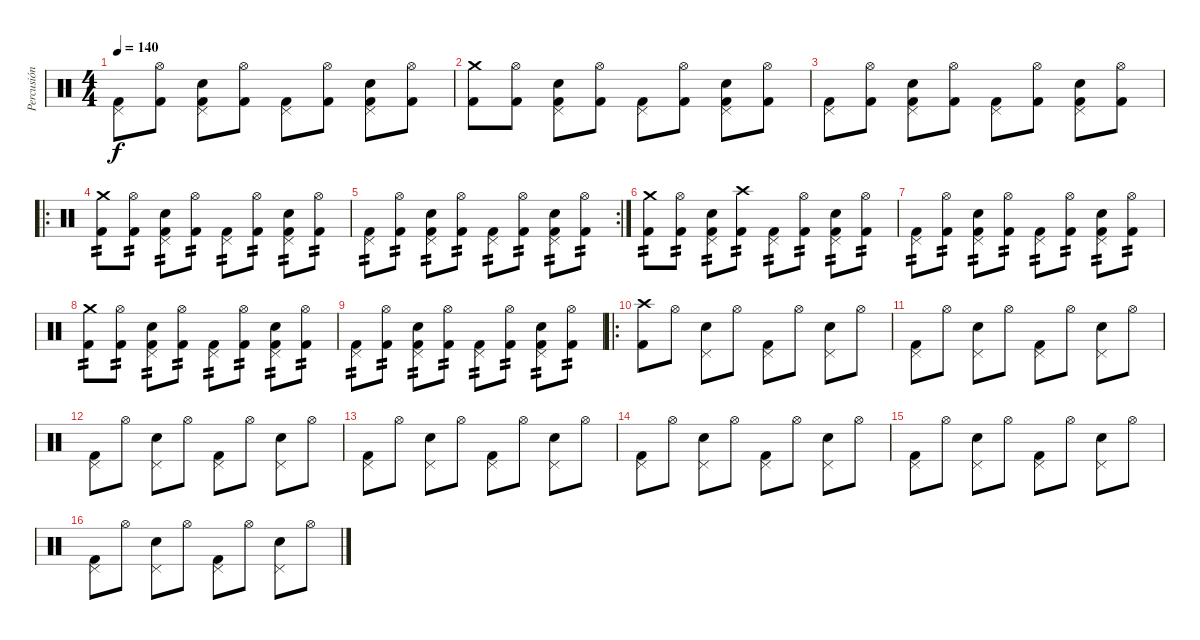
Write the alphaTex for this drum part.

\track ("Percusión" "Percusión") {instrument percussion}
\staff {score}
\articulation defaults
\ts (4 4)
\tempo 140
\clef neutral
\ks c
("Pedal Hi-Hat (hit)" "Kick (hit) 2").8{dy f} ("Hi-Hat (open)" "Kick (hit) 2").8 ("Pedal Hi-Hat (hit)" "Electric Snare (hit)" "Kick (hit) 2").8 ("Hi-Hat (open)" "Kick (hit) 2").8 ("Pedal Hi-Hat (hit)" "Kick (hit) 2").8 ("Hi-Hat (open)" "Kick (hit) 2").8 ("Pedal Hi-Hat (hit)" "Electric Snare (hit)" "Kick (hit) 2").8 ("Hi-Hat (open)" "Kick (hit) 2").8 |
("Crash medium (hit)" "Kick (hit) 2").8 ("Hi-Hat (open)" "Kick (hit) 2").8 ("Pedal Hi-Hat (hit)" "Electric Snare (hit)" "Kick (hit) 2").8 ("Hi-Hat (open)" "Kick (hit) 2").8 ("Pedal Hi-Hat (hit)" "Kick (hit) 2").8 ("Hi-Hat (open)" "Kick (hit) 2").8 ("Pedal Hi-Hat (hit)" "Electric Snare (hit)" "Kick (hit) 2").8 ("Hi-Hat (open)" "Kick (hit) 2").8 |
("Pedal Hi-Hat (hit)" "Kick (hit) 2").8 ("Hi-Hat (open)" "Kick (hit) 2").8 ("Pedal Hi-Hat (hit)" "Electric Snare (hit)" "Kick (hit) 2").8 ("Hi-Hat (open)" "Kick (hit) 2").8 ("Pedal Hi-Hat (hit)" "Kick (hit) 2").8 ("Hi-Hat (open)" "Kick (hit) 2").8 ("Pedal Hi-Hat (hit)" "Electric Snare (hit)" "Kick (hit) 2").8 ("Hi-Hat (open)" "Kick (hit) 2").8 |
\ro
("Crash medium (hit)" "Kick (hit) 2").8{tp 2} ("Hi-Hat (open)" "Kick (hit) 2").8{tp 2} ("Pedal Hi-Hat (hit)" "Electric Snare (hit)" "Kick (hit) 2").8{tp 2} ("Hi-Hat (open)" "Kick (hit) 2").8{tp 2} ("Pedal Hi-Hat (hit)" "Kick (hit) 2").8{tp 2} ("Hi-Hat (open)" "Kick (hit) 2").8{tp 2} ("Pedal Hi-Hat (hit)" "Electric Snare (hit)" "Kick (hit) 2").8{tp 2} ("Hi-Hat (open)" "Kick (hit) 2").8{tp 2} |
\rc 2
("Pedal Hi-Hat (hit)" "Kick (hit) 2").8{tp 2} ("Hi-Hat (open)" "Kick (hit) 2").8{tp 2} ("Pedal Hi-Hat (hit)" "Electric Snare (hit)" "Kick (hit) 2").8{tp 2} ("Hi-Hat (open)" "Kick (hit) 2").8{tp 2} ("Pedal Hi-Hat (hit)" "Kick (hit) 2").8{tp 2} ("Hi-Hat (open)" "Kick (hit) 2").8{tp 2} ("Pedal Hi-Hat (hit)" "Electric Snare (hit)" "Kick (hit) 2").8{tp 2} ("Hi-Hat (open)" "Kick (hit) 2").8{tp 2} |
("Crash medium (hit)" "Kick (hit) 2").8{tp 2} ("Hi-Hat (open)" "Kick (hit) 2").8{tp 2} ("Pedal Hi-Hat (hit)" "Electric Snare (hit)" "Kick (hit) 2").8{tp 2} ("Crash high (hit)" "Kick (hit) 2").8{tp 2} ("Pedal Hi-Hat (hit)" "Kick (hit) 2").8{tp 2} ("Hi-Hat (open)" "Kick (hit) 2").8{tp 2} ("Pedal Hi-Hat (hit)" "Electric Snare (hit)" "Kick (hit) 2").8{tp 2} ("Hi-Hat (open)" "Kick (hit) 2").8{tp 2} |
("Pedal Hi-Hat (hit)" "Kick (hit) 2").8{tp 2} ("Hi-Hat (open)" "Kick (hit) 2").8{tp 2} ("Pedal Hi-Hat (hit)" "Electric Snare (hit)" "Kick (hit) 2").8{tp 2} ("Hi-Hat (open)" "Kick (hit) 2").8{tp 2} ("Pedal Hi-Hat (hit)" "Kick (hit) 2").8{tp 2} ("Hi-Hat (open)" "Kick (hit) 2").8{tp 2} ("Pedal Hi-Hat (hit)" "Electric Snare (hit)" "Kick (hit) 2").8{tp 2} ("Hi-Hat (open)" "Kick (hit) 2").8{tp 2} |
("Crash medium (hit)" "Kick (hit) 2").8{tp 2} ("Hi-Hat (open)" "Kick (hit) 2").8{tp 2} ("Pedal Hi-Hat (hit)" "Electric Snare (hit)" "Kick (hit) 2").8{tp 2} ("Hi-Hat (open)" "Kick (hit) 2").8{tp 2} ("Pedal Hi-Hat (hit)" "Kick (hit) 2").8{tp 2} ("Hi-Hat (open)" "Kick (hit) 2").8{tp 2} ("Pedal Hi-Hat (hit)" "Electric Snare (hit)" "Kick (hit) 2").8{tp 2} ("Hi-Hat (open)" "Kick (hit) 2").8{tp 2} |
("Pedal Hi-Hat (hit)" "Kick (hit) 2").8{tp 2} ("Hi-Hat (open)" "Kick (hit) 2").8{tp 2} ("Pedal Hi-Hat (hit)" "Electric Snare (hit)" "Kick (hit) 2").8{tp 2} ("Hi-Hat (open)" "Kick (hit) 2").8{tp 2} ("Pedal Hi-Hat (hit)" "Kick (hit) 2").8{tp 2} ("Hi-Hat (open)" "Kick (hit) 2").8{tp 2} ("Pedal Hi-Hat (hit)" "Electric Snare (hit)" "Kick (hit) 2").8{tp 2} ("Hi-Hat (open)" "Kick (hit) 2").8{tp 2} |
\ro
("Crash high (hit)" "Kick (hit) 2").8 "Hi-Hat (open)".8 ("Pedal Hi-Hat (hit)" "Electric Snare (hit)").8 "Hi-Hat (open)".8 ("Pedal Hi-Hat (hit)" "Kick (hit) 2").8 "Hi-Hat (open)".8 ("Pedal Hi-Hat (hit)" "Electric Snare (hit)").8 "Hi-Hat (open)".8 |
("Pedal Hi-Hat (hit)" "Kick (hit) 2").8 "Hi-Hat (open)".8 ("Pedal Hi-Hat (hit)" "Electric Snare (hit)").8 "Hi-Hat (open)".8 ("Pedal Hi-Hat (hit)" "Kick (hit) 2").8 "Hi-Hat (open)".8 ("Pedal Hi-Hat (hit)" "Electric Snare (hit)").8 "Hi-Hat (open)".8 |
("Pedal Hi-Hat (hit)" "Kick (hit) 2").8 "Hi-Hat (open)".8 ("Pedal Hi-Hat (hit)" "Electric Snare (hit)").8 "Hi-Hat (open)".8 ("Pedal Hi-Hat (hit)" "Kick (hit) 2").8 "Hi-Hat (open)".8 ("Pedal Hi-Hat (hit)" "Electric Snare (hit)").8 "Hi-Hat (open)".8 |
("Pedal Hi-Hat (hit)" "Kick (hit) 2").8 "Hi-Hat (open)".8 ("Pedal Hi-Hat (hit)" "Electric Snare (hit)").8 "Hi-Hat (open)".8 ("Pedal Hi-Hat (hit)" "Kick (hit) 2").8 "Hi-Hat (open)".8 ("Pedal Hi-Hat (hit)" "Electric Snare (hit)").8 "Hi-Hat (open)".8 |
("Pedal Hi-Hat (hit)" "Kick (hit) 2").8 "Hi-Hat (open)".8 ("Pedal Hi-Hat (hit)" "Electric Snare (hit)").8 "Hi-Hat (open)".8 ("Pedal Hi-Hat (hit)" "Kick (hit) 2").8 "Hi-Hat (open)".8 ("Pedal Hi-Hat (hit)" "Electric Snare (hit)").8 "Hi-Hat (open)".8 |
("Pedal Hi-Hat (hit)" "Kick (hit) 2").8 "Hi-Hat (open)".8 ("Pedal Hi-Hat (hit)" "Electric Snare (hit)").8 "Hi-Hat (open)".8 ("Pedal Hi-Hat (hit)" "Kick (hit) 2").8 "Hi-Hat (open)".8 ("Pedal Hi-Hat (hit)" "Electric Snare (hit)").8 "Hi-Hat (open)".8 |
("Pedal Hi-Hat (hit)" "Kick (hit) 2").8 "Hi-Hat (open)".8 ("Pedal Hi-Hat (hit)" "Electric Snare (hit)").8 "Hi-Hat (open)".8 ("Pedal Hi-Hat (hit)" "Kick (hit) 2").8 "Hi-Hat (open)".8 ("Pedal Hi-Hat (hit)" "Electric Snare (hit)").8 "Hi-Hat (open)".8
